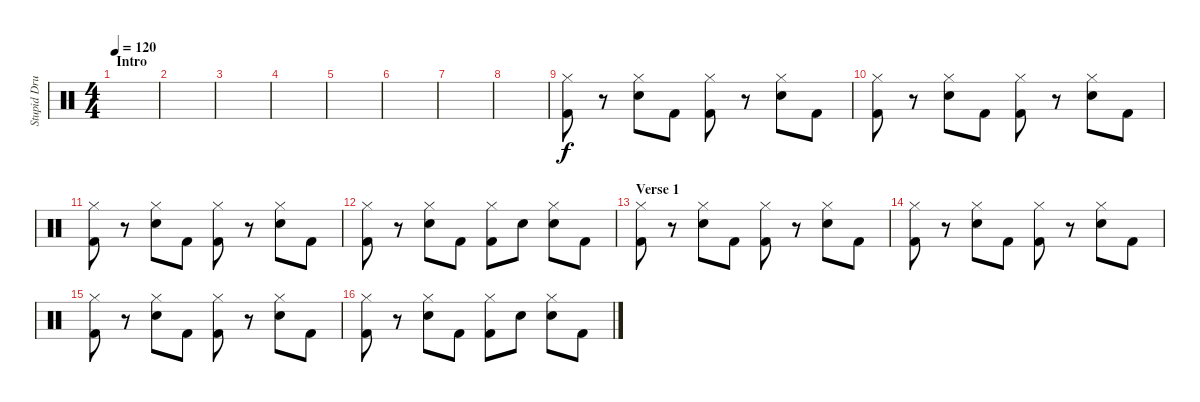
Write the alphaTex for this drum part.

\track ("Stupid Drummer" "Stupid Dru") {instrument percussion}
\staff {score}
\articulation defaults
\ts (4 4)
\section ("" "Intro")
\tempo 120
\clef neutral
\ks c
|
|
|
|
|
|
|
|
("Hi-Hat (closed)" "Kick (hit) 2").8 r.8 ("Hi-Hat (closed)" "Electric Snare (hit)").8 "Kick (hit) 2".8 ("Hi-Hat (closed)" "Kick (hit) 2").8 r.8 ("Hi-Hat (closed)" "Electric Snare (hit)").8 "Kick (hit) 2".8 |
("Hi-Hat (closed)" "Kick (hit) 2").8 r.8 ("Hi-Hat (closed)" "Electric Snare (hit)").8 "Kick (hit) 2".8 ("Hi-Hat (closed)" "Kick (hit) 2").8 r.8 ("Hi-Hat (closed)" "Electric Snare (hit)").8 "Kick (hit) 2".8 |
("Hi-Hat (closed)" "Kick (hit) 2").8 r.8 ("Hi-Hat (closed)" "Electric Snare (hit)").8 "Kick (hit) 2".8 ("Hi-Hat (closed)" "Kick (hit) 2").8 r.8 ("Hi-Hat (closed)" "Electric Snare (hit)").8 "Kick (hit) 2".8 |
("Hi-Hat (closed)" "Kick (hit) 2").8 r.8 ("Hi-Hat (closed)" "Electric Snare (hit)").8 "Kick (hit) 2".8 ("Hi-Hat (closed)" "Kick (hit) 2").8 "Electric Snare (hit)".8 ("Hi-Hat (closed)" "Electric Snare (hit)").8 "Kick (hit) 2".8 |
\section ("" "Verse 1")
("Hi-Hat (closed)" "Kick (hit) 2").8 r.8 ("Hi-Hat (closed)" "Electric Snare (hit)").8 "Kick (hit) 2".8 ("Hi-Hat (closed)" "Kick (hit) 2").8 r.8 ("Hi-Hat (closed)" "Electric Snare (hit)").8 "Kick (hit) 2".8 |
("Hi-Hat (closed)" "Kick (hit) 2").8 r.8 ("Hi-Hat (closed)" "Electric Snare (hit)").8 "Kick (hit) 2".8 ("Hi-Hat (closed)" "Kick (hit) 2").8 r.8 ("Hi-Hat (closed)" "Electric Snare (hit)").8 "Kick (hit) 2".8 |
("Hi-Hat (closed)" "Kick (hit) 2").8 r.8 ("Hi-Hat (closed)" "Electric Snare (hit)").8 "Kick (hit) 2".8 ("Hi-Hat (closed)" "Kick (hit) 2").8 r.8 ("Hi-Hat (closed)" "Electric Snare (hit)").8 "Kick (hit) 2".8 |
("Hi-Hat (closed)" "Kick (hit) 2").8 r.8 ("Hi-Hat (closed)" "Electric Snare (hit)").8 "Kick (hit) 2".8 ("Hi-Hat (closed)" "Kick (hit) 2").8 "Electric Snare (hit)".8 ("Hi-Hat (closed)" "Electric Snare (hit)").8 "Kick (hit) 2".8
